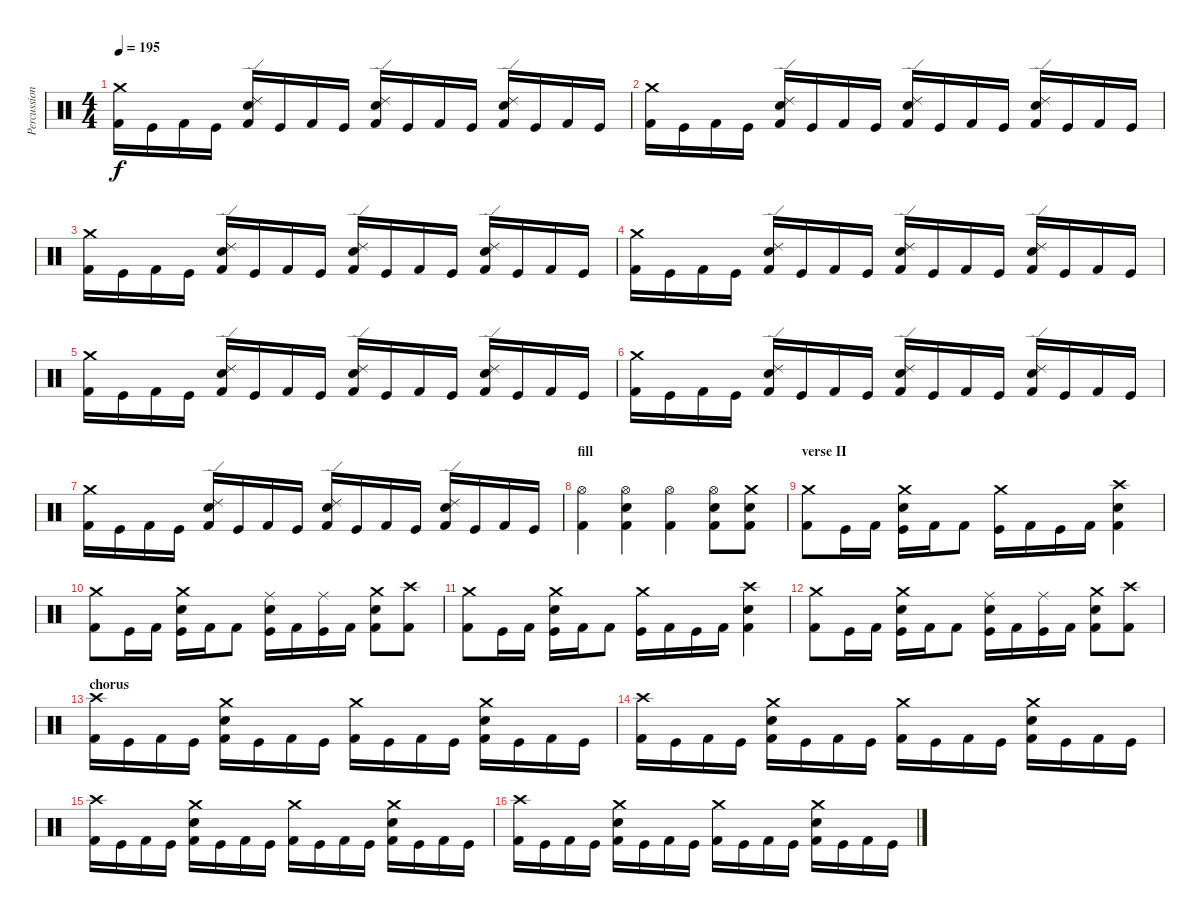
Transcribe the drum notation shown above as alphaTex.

\track ("Percussion" "Percussion") {instrument percussion}
\staff {score}
\articulation defaults
\ts (4 4)
\tempo 195
\clef neutral
\ks c
("Crash medium (hit)" "Kick (hit) 2").16{dy f} "Kick (hit)".16 "Kick (hit) 2".16 "Kick (hit)".16 ("Ride (edge) 2" "Electric Snare (hit)" "Kick (hit) 2").16 "Kick (hit)".16 "Kick (hit) 2".16 "Kick (hit)".16 ("Ride (edge) 2" "Electric Snare (hit)" "Kick (hit) 2").16 "Kick (hit)".16 "Kick (hit) 2".16 "Kick (hit)".16 ("Ride (edge) 2" "Electric Snare (hit)" "Kick (hit) 2").16 "Kick (hit)".16 "Kick (hit) 2".16 "Kick (hit)".16 |
("Crash medium (hit)" "Kick (hit) 2").16 "Kick (hit)".16 "Kick (hit) 2".16 "Kick (hit)".16 ("Ride (edge) 2" "Electric Snare (hit)" "Kick (hit) 2").16 "Kick (hit)".16 "Kick (hit) 2".16 "Kick (hit)".16 ("Ride (edge) 2" "Electric Snare (hit)" "Kick (hit) 2").16 "Kick (hit)".16 "Kick (hit) 2".16 "Kick (hit)".16 ("Ride (edge) 2" "Electric Snare (hit)" "Kick (hit) 2").16 "Kick (hit)".16 "Kick (hit) 2".16 "Kick (hit)".16 |
("Crash medium (hit)" "Kick (hit) 2").16 "Kick (hit)".16 "Kick (hit) 2".16 "Kick (hit)".16 ("Ride (edge) 2" "Electric Snare (hit)" "Kick (hit) 2").16 "Kick (hit)".16 "Kick (hit) 2".16 "Kick (hit)".16 ("Ride (edge) 2" "Electric Snare (hit)" "Kick (hit) 2").16 "Kick (hit)".16 "Kick (hit) 2".16 "Kick (hit)".16 ("Ride (edge) 2" "Electric Snare (hit)" "Kick (hit) 2").16 "Kick (hit)".16 "Kick (hit) 2".16 "Kick (hit)".16 |
("Crash medium (hit)" "Kick (hit) 2").16 "Kick (hit)".16 "Kick (hit) 2".16 "Kick (hit)".16 ("Ride (edge) 2" "Electric Snare (hit)" "Kick (hit) 2").16 "Kick (hit)".16 "Kick (hit) 2".16 "Kick (hit)".16 ("Ride (edge) 2" "Electric Snare (hit)" "Kick (hit) 2").16 "Kick (hit)".16 "Kick (hit) 2".16 "Kick (hit)".16 ("Ride (edge) 2" "Electric Snare (hit)" "Kick (hit) 2").16 "Kick (hit)".16 "Kick (hit) 2".16 "Kick (hit)".16 |
("Crash medium (hit)" "Kick (hit) 2").16 "Kick (hit)".16 "Kick (hit) 2".16 "Kick (hit)".16 ("Ride (edge) 2" "Electric Snare (hit)" "Kick (hit) 2").16 "Kick (hit)".16 "Kick (hit) 2".16 "Kick (hit)".16 ("Ride (edge) 2" "Electric Snare (hit)" "Kick (hit) 2").16 "Kick (hit)".16 "Kick (hit) 2".16 "Kick (hit)".16 ("Ride (edge) 2" "Electric Snare (hit)" "Kick (hit) 2").16 "Kick (hit)".16 "Kick (hit) 2".16 "Kick (hit)".16 |
("Crash medium (hit)" "Kick (hit) 2").16 "Kick (hit)".16 "Kick (hit) 2".16 "Kick (hit)".16 ("Ride (edge) 2" "Electric Snare (hit)" "Kick (hit) 2").16 "Kick (hit)".16 "Kick (hit) 2".16 "Kick (hit)".16 ("Ride (edge) 2" "Electric Snare (hit)" "Kick (hit) 2").16 "Kick (hit)".16 "Kick (hit) 2".16 "Kick (hit)".16 ("Ride (edge) 2" "Electric Snare (hit)" "Kick (hit) 2").16 "Kick (hit)".16 "Kick (hit) 2".16 "Kick (hit)".16 |
("Crash medium (hit)" "Kick (hit) 2").16 "Kick (hit)".16 "Kick (hit) 2".16 "Kick (hit)".16 ("Ride (edge) 2" "Electric Snare (hit)" "Kick (hit) 2").16 "Kick (hit)".16 "Kick (hit) 2".16 "Kick (hit)".16 ("Ride (edge) 2" "Electric Snare (hit)" "Kick (hit) 2").16 "Kick (hit)".16 "Kick (hit) 2".16 "Kick (hit)".16 ("Ride (edge) 2" "Electric Snare (hit)" "Kick (hit) 2").16 "Kick (hit)".16 "Kick (hit) 2".16 "Kick (hit)".16 |
\section ("" "fill")
("Hi-Hat (open)" "Kick (hit) 2").4 ("Hi-Hat (open)" "Electric Snare (hit)" "Kick (hit) 2").4 ("Hi-Hat (open)" "Kick (hit) 2").4 ("Hi-Hat (open)" "Electric Snare (hit)" "Kick (hit) 2").8 ("Crash medium (hit)" "Electric Snare (hit)" "Kick (hit) 2").8 |
\section ("" "verse II")
("Crash medium (hit)" "Kick (hit) 2").8 "Kick (hit)".16 "Kick (hit) 2".16 ("Crash medium (hit)" "Electric Snare (hit)" "Kick (hit)").16 "Kick (hit) 2".16 "Kick (hit) 2".8 ("Crash medium (hit)" "Kick (hit)").16 "Kick (hit) 2".16 "Kick (hit)".16 "Kick (hit) 2".16 ("Crash high (hit)" "Electric Snare (hit)" "Kick (hit) 2").4 |
("Crash medium (hit)" "Kick (hit) 2").8 "Kick (hit)".16 "Kick (hit) 2".16 ("Crash medium (hit)" "Electric Snare (hit)" "Kick (hit)").16 "Kick (hit) 2".16 "Kick (hit) 2".8 ("Ride (middle)" "Electric Snare (hit)" "Kick (hit)").16 "Kick (hit) 2".16 ("Ride (middle)" "Kick (hit)").16 "Kick (hit) 2".16 ("Crash medium (hit)" "Electric Snare (hit)" "Kick (hit) 2").8 ("Crash high (hit)" "Kick (hit) 2").8 |
("Crash medium (hit)" "Kick (hit) 2").8 "Kick (hit)".16 "Kick (hit) 2".16 ("Crash medium (hit)" "Electric Snare (hit)" "Kick (hit)").16 "Kick (hit) 2".16 "Kick (hit) 2".8 ("Crash medium (hit)" "Kick (hit)").16 "Kick (hit) 2".16 "Kick (hit)".16 "Kick (hit) 2".16 ("Crash high (hit)" "Electric Snare (hit)" "Kick (hit) 2").4 |
("Crash medium (hit)" "Kick (hit) 2").8 "Kick (hit)".16 "Kick (hit) 2".16 ("Crash medium (hit)" "Electric Snare (hit)" "Kick (hit)").16 "Kick (hit) 2".16 "Kick (hit) 2".8 ("Ride (middle)" "Electric Snare (hit)" "Kick (hit)").16 "Kick (hit) 2".16 ("Ride (middle)" "Kick (hit)").16 "Kick (hit) 2".16 ("Crash medium (hit)" "Electric Snare (hit)" "Kick (hit) 2").8 ("Crash high (hit)" "Kick (hit) 2").8 |
\section ("" "chorus")
("Crash high (hit)" "Kick (hit) 2").16 "Kick (hit)".16 "Kick (hit) 2".16 "Kick (hit)".16 ("Crash medium (hit)" "Electric Snare (hit)" "Kick (hit) 2").16 "Kick (hit)".16 "Kick (hit) 2".16 "Kick (hit)".16 ("Crash medium (hit)" "Kick (hit) 2").16 "Kick (hit)".16 "Kick (hit) 2".16 "Kick (hit)".16 ("Crash medium (hit)" "Electric Snare (hit)" "Kick (hit) 2").16 "Kick (hit)".16 "Kick (hit) 2".16 "Kick (hit)".16 |
("Crash high (hit)" "Kick (hit) 2").16 "Kick (hit)".16 "Kick (hit) 2".16 "Kick (hit)".16 ("Crash medium (hit)" "Electric Snare (hit)" "Kick (hit) 2").16 "Kick (hit)".16 "Kick (hit) 2".16 "Kick (hit)".16 ("Crash medium (hit)" "Kick (hit) 2").16 "Kick (hit)".16 "Kick (hit) 2".16 "Kick (hit)".16 ("Crash medium (hit)" "Electric Snare (hit)" "Kick (hit) 2").16 "Kick (hit)".16 "Kick (hit) 2".16 "Kick (hit)".16 |
("Crash high (hit)" "Kick (hit) 2").16 "Kick (hit)".16 "Kick (hit) 2".16 "Kick (hit)".16 ("Crash medium (hit)" "Electric Snare (hit)" "Kick (hit) 2").16 "Kick (hit)".16 "Kick (hit) 2".16 "Kick (hit)".16 ("Crash medium (hit)" "Kick (hit) 2").16 "Kick (hit)".16 "Kick (hit) 2".16 "Kick (hit)".16 ("Crash medium (hit)" "Electric Snare (hit)" "Kick (hit) 2").16 "Kick (hit)".16 "Kick (hit) 2".16 "Kick (hit)".16 |
("Crash high (hit)" "Kick (hit) 2").16 "Kick (hit)".16 "Kick (hit) 2".16 "Kick (hit)".16 ("Crash medium (hit)" "Electric Snare (hit)" "Kick (hit) 2").16 "Kick (hit)".16 "Kick (hit) 2".16 "Kick (hit)".16 ("Crash medium (hit)" "Kick (hit) 2").16 "Kick (hit)".16 "Kick (hit) 2".16 "Kick (hit)".16 ("Crash medium (hit)" "Electric Snare (hit)" "Kick (hit) 2").16 "Kick (hit)".16 "Kick (hit) 2".16 "Kick (hit)".16
